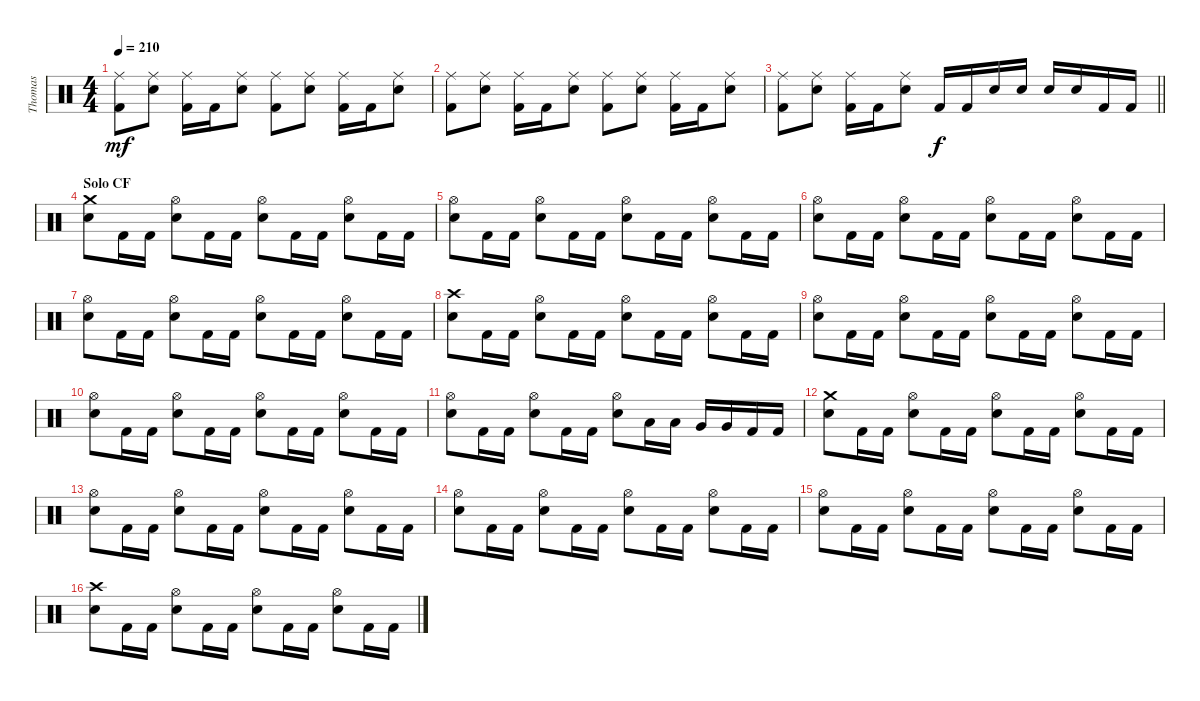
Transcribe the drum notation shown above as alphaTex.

\track ("Thomas" "Thomas") {instrument percussion}
\staff {score}
\articulation defaults
\ts (4 4)
\tempo 210
\clef neutral
\ks c
("Ride (middle)" "Kick (hit) 2").8{dy mf} ("Ride (middle)" "Snare (hit) 2").8 ("Ride (middle)" "Kick (hit) 2").16 "Kick (hit) 2".16 ("Ride (middle)" "Snare (hit) 2").8 ("Ride (middle)" "Kick (hit) 2").8 ("Ride (middle)" "Snare (hit) 2").8 ("Ride (middle)" "Kick (hit) 2").16 "Kick (hit) 2".16 ("Ride (middle)" "Snare (hit) 2").8 |
("Ride (middle)" "Kick (hit) 2").8 ("Ride (middle)" "Snare (hit) 2").8 ("Ride (middle)" "Kick (hit) 2").16 "Kick (hit) 2".16 ("Ride (middle)" "Snare (hit) 2").8 ("Ride (middle)" "Kick (hit) 2").8 ("Ride (middle)" "Snare (hit) 2").8 ("Ride (middle)" "Kick (hit) 2").16 "Kick (hit) 2".16 ("Ride (middle)" "Snare (hit) 2").8 |
\barLineRight lightlight
("Ride (middle)" "Kick (hit) 2").8 ("Ride (middle)" "Snare (hit) 2").8 ("Ride (middle)" "Kick (hit) 2").16 "Kick (hit) 2".16 ("Ride (middle)" "Snare (hit) 2").8 "Kick (hit) 2".16{dy f} "Kick (hit) 2".16 "Snare (hit) 2".16 "Snare (hit) 2".16 "Snare (hit) 2".16 "Snare (hit) 2".16 "Kick (hit) 2".16 "Kick (hit) 2".16 |
\section ("" "Solo CF")
("Crash medium (hit)" "Snare (hit) 2").8 "Kick (hit) 2".16 "Kick (hit) 2".16 ("Hi-Hat (open)" "Snare (hit) 2").8 "Kick (hit) 2".16 "Kick (hit) 2".16 ("Hi-Hat (open)" "Snare (hit) 2").8 "Kick (hit) 2".16 "Kick (hit) 2".16 ("Hi-Hat (open)" "Snare (hit) 2").8 "Kick (hit) 2".16 "Kick (hit) 2".16 |
("Hi-Hat (open)" "Snare (hit) 2").8 "Kick (hit) 2".16 "Kick (hit) 2".16 ("Hi-Hat (open)" "Snare (hit) 2").8 "Kick (hit) 2".16 "Kick (hit) 2".16 ("Hi-Hat (open)" "Snare (hit) 2").8 "Kick (hit) 2".16 "Kick (hit) 2".16 ("Hi-Hat (open)" "Snare (hit) 2").8 "Kick (hit) 2".16 "Kick (hit) 2".16 |
("Hi-Hat (open)" "Snare (hit) 2").8 "Kick (hit) 2".16 "Kick (hit) 2".16 ("Hi-Hat (open)" "Snare (hit) 2").8 "Kick (hit) 2".16 "Kick (hit) 2".16 ("Hi-Hat (open)" "Snare (hit) 2").8 "Kick (hit) 2".16 "Kick (hit) 2".16 ("Hi-Hat (open)" "Snare (hit) 2").8 "Kick (hit) 2".16 "Kick (hit) 2".16 |
("Hi-Hat (open)" "Snare (hit) 2").8 "Kick (hit) 2".16 "Kick (hit) 2".16 ("Hi-Hat (open)" "Snare (hit) 2").8 "Kick (hit) 2".16 "Kick (hit) 2".16 ("Hi-Hat (open)" "Snare (hit) 2").8 "Kick (hit) 2".16 "Kick (hit) 2".16 ("Hi-Hat (open)" "Snare (hit) 2").8 "Kick (hit) 2".16 "Kick (hit) 2".16 |
("Crash high (hit)" "Snare (hit) 2").8 "Kick (hit) 2".16 "Kick (hit) 2".16 ("Hi-Hat (open)" "Snare (hit) 2").8 "Kick (hit) 2".16 "Kick (hit) 2".16 ("Hi-Hat (open)" "Snare (hit) 2").8 "Kick (hit) 2".16 "Kick (hit) 2".16 ("Hi-Hat (open)" "Snare (hit) 2").8 "Kick (hit) 2".16 "Kick (hit) 2".16 |
("Hi-Hat (open)" "Snare (hit) 2").8 "Kick (hit) 2".16 "Kick (hit) 2".16 ("Hi-Hat (open)" "Snare (hit) 2").8 "Kick (hit) 2".16 "Kick (hit) 2".16 ("Hi-Hat (open)" "Snare (hit) 2").8 "Kick (hit) 2".16 "Kick (hit) 2".16 ("Hi-Hat (open)" "Snare (hit) 2").8 "Kick (hit) 2".16 "Kick (hit) 2".16 |
("Hi-Hat (open)" "Snare (hit) 2").8 "Kick (hit) 2".16 "Kick (hit) 2".16 ("Hi-Hat (open)" "Snare (hit) 2").8 "Kick (hit) 2".16 "Kick (hit) 2".16 ("Hi-Hat (open)" "Snare (hit) 2").8 "Kick (hit) 2".16 "Kick (hit) 2".16 ("Hi-Hat (open)" "Snare (hit) 2").8 "Kick (hit) 2".16 "Kick (hit) 2".16 |
("Hi-Hat (open)" "Snare (hit) 2").8 "Kick (hit) 2".16 "Kick (hit) 2".16 ("Hi-Hat (open)" "Snare (hit) 2").8 "Kick (hit) 2".16 "Kick (hit) 2".16 ("Hi-Hat (open)" "Snare (hit) 2").8 "Low Tom (hit)".16 "Low Tom (hit)".16 "Very Low Tom (hit)".16 "Very Low Tom (hit)".16 "Kick (hit) 2".16 "Kick (hit) 2".16 |
("Crash medium (hit)" "Snare (hit) 2").8 "Kick (hit) 2".16 "Kick (hit) 2".16 ("Hi-Hat (open)" "Snare (hit) 2").8 "Kick (hit) 2".16 "Kick (hit) 2".16 ("Hi-Hat (open)" "Snare (hit) 2").8 "Kick (hit) 2".16 "Kick (hit) 2".16 ("Hi-Hat (open)" "Snare (hit) 2").8 "Kick (hit) 2".16 "Kick (hit) 2".16 |
("Hi-Hat (open)" "Snare (hit) 2").8 "Kick (hit) 2".16 "Kick (hit) 2".16 ("Hi-Hat (open)" "Snare (hit) 2").8 "Kick (hit) 2".16 "Kick (hit) 2".16 ("Hi-Hat (open)" "Snare (hit) 2").8 "Kick (hit) 2".16 "Kick (hit) 2".16 ("Hi-Hat (open)" "Snare (hit) 2").8 "Kick (hit) 2".16 "Kick (hit) 2".16 |
("Hi-Hat (open)" "Snare (hit) 2").8 "Kick (hit) 2".16 "Kick (hit) 2".16 ("Hi-Hat (open)" "Snare (hit) 2").8 "Kick (hit) 2".16 "Kick (hit) 2".16 ("Hi-Hat (open)" "Snare (hit) 2").8 "Kick (hit) 2".16 "Kick (hit) 2".16 ("Hi-Hat (open)" "Snare (hit) 2").8 "Kick (hit) 2".16 "Kick (hit) 2".16 |
("Hi-Hat (open)" "Snare (hit) 2").8 "Kick (hit) 2".16 "Kick (hit) 2".16 ("Hi-Hat (open)" "Snare (hit) 2").8 "Kick (hit) 2".16 "Kick (hit) 2".16 ("Hi-Hat (open)" "Snare (hit) 2").8 "Kick (hit) 2".16 "Kick (hit) 2".16 ("Hi-Hat (open)" "Snare (hit) 2").8 "Kick (hit) 2".16 "Kick (hit) 2".16 |
("Crash high (hit)" "Snare (hit) 2").8 "Kick (hit) 2".16 "Kick (hit) 2".16 ("Hi-Hat (open)" "Snare (hit) 2").8 "Kick (hit) 2".16 "Kick (hit) 2".16 ("Hi-Hat (open)" "Snare (hit) 2").8 "Kick (hit) 2".16 "Kick (hit) 2".16 ("Hi-Hat (open)" "Snare (hit) 2").8 "Kick (hit) 2".16 "Kick (hit) 2".16
